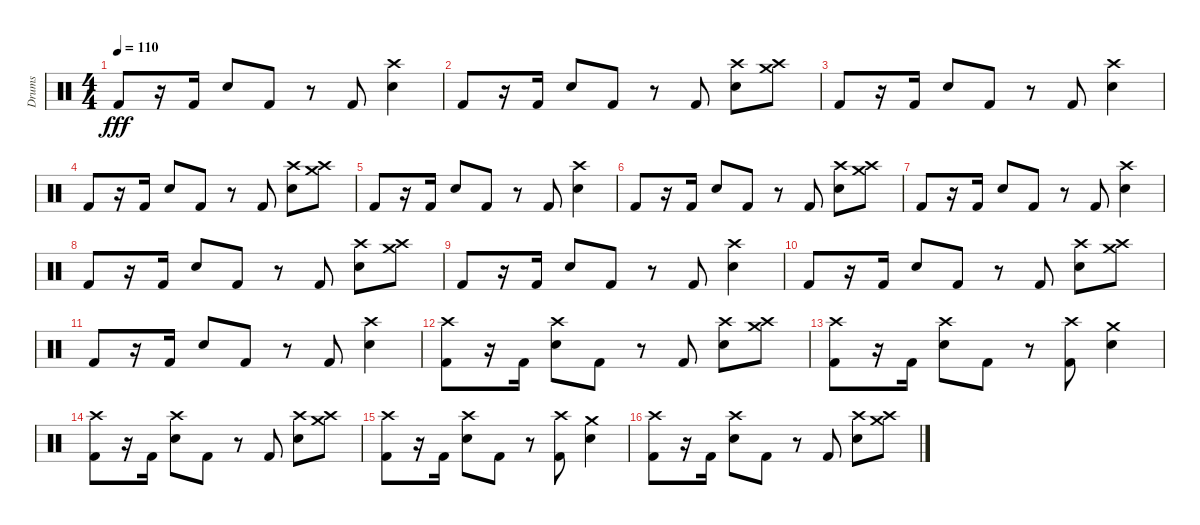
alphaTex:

\track ("Drums" "Drums") {instrument percussion}
\staff {score}
\articulation defaults
\ts (4 4)
\tempo 110
\clef neutral
\ks c "Kick (hit) 2".8{dy fff}
r.16 "Kick (hit) 2".16 "Electric Snare (hit)".8 "Kick (hit) 2".8 r.8 "Kick (hit) 2".8 ("Crash high (hit)" "Electric Snare (hit)").4 |
"Kick (hit) 2".8 r.16 "Kick (hit) 2".16 "Electric Snare (hit)".8 "Kick (hit) 2".8 r.8 "Kick (hit) 2".8 ("Crash high (hit)" "Electric Snare (hit)").8 ("Crash high (hit)" "Crash medium (hit)").8 |
"Kick (hit) 2".8 r.16 "Kick (hit) 2".16 "Electric Snare (hit)".8 "Kick (hit) 2".8 r.8 "Kick (hit) 2".8 ("Crash high (hit)" "Electric Snare (hit)").4 |
"Kick (hit) 2".8 r.16 "Kick (hit) 2".16 "Electric Snare (hit)".8 "Kick (hit) 2".8 r.8 "Kick (hit) 2".8 ("Crash high (hit)" "Electric Snare (hit)").8 ("Crash high (hit)" "Crash medium (hit)").8 |
"Kick (hit) 2".8 r.16 "Kick (hit) 2".16 "Electric Snare (hit)".8 "Kick (hit) 2".8 r.8 "Kick (hit) 2".8 ("Crash high (hit)" "Electric Snare (hit)").4 |
"Kick (hit) 2".8 r.16 "Kick (hit) 2".16 "Electric Snare (hit)".8 "Kick (hit) 2".8 r.8 "Kick (hit) 2".8 ("Crash high (hit)" "Electric Snare (hit)").8 ("Crash high (hit)" "Crash medium (hit)").8 |
"Kick (hit) 2".8 r.16 "Kick (hit) 2".16 "Electric Snare (hit)".8 "Kick (hit) 2".8 r.8 "Kick (hit) 2".8 ("Crash high (hit)" "Electric Snare (hit)").4 |
"Kick (hit) 2".8 r.16 "Kick (hit) 2".16 "Electric Snare (hit)".8 "Kick (hit) 2".8 r.8 "Kick (hit) 2".8 ("Crash high (hit)" "Electric Snare (hit)").8 ("Crash high (hit)" "Crash medium (hit)").8 |
"Kick (hit) 2".8 r.16 "Kick (hit) 2".16 "Electric Snare (hit)".8 "Kick (hit) 2".8 r.8 "Kick (hit) 2".8 ("Crash high (hit)" "Electric Snare (hit)").4 |
"Kick (hit) 2".8 r.16 "Kick (hit) 2".16 "Electric Snare (hit)".8 "Kick (hit) 2".8 r.8 "Kick (hit) 2".8 ("Crash high (hit)" "Electric Snare (hit)").8 ("Crash high (hit)" "Crash medium (hit)").8 |
"Kick (hit) 2".8 r.16 "Kick (hit) 2".16 "Electric Snare (hit)".8 "Kick (hit) 2".8 r.8 "Kick (hit) 2".8 ("Crash high (hit)" "Electric Snare (hit)").4 |
("Crash high (hit)" "Kick (hit) 2").8 r.16 "Kick (hit) 2".16 ("Crash high (hit)" "Electric Snare (hit)").8 "Kick (hit) 2".8 r.8 "Kick (hit) 2".8 ("Crash high (hit)" "Electric Snare (hit)").8 ("Crash high (hit)" "Crash medium (hit)").8 |
("Crash high (hit)" "Kick (hit) 2").8 r.16 "Kick (hit) 2".16 ("Crash high (hit)" "Electric Snare (hit)").8 "Kick (hit) 2".8 r.8 ("Crash high (hit)" "Kick (hit) 2").8 ("Crash medium (hit)" "Electric Snare (hit)").4 |
("Crash high (hit)" "Kick (hit) 2").8 r.16 "Kick (hit) 2".16 ("Crash high (hit)" "Electric Snare (hit)").8 "Kick (hit) 2".8 r.8 "Kick (hit) 2".8 ("Crash high (hit)" "Electric Snare (hit)").8 ("Crash high (hit)" "Crash medium (hit)").8 |
("Crash high (hit)" "Kick (hit) 2").8 r.16 "Kick (hit) 2".16 ("Crash high (hit)" "Electric Snare (hit)").8 "Kick (hit) 2".8 r.8 ("Crash high (hit)" "Kick (hit) 2").8 ("Crash medium (hit)" "Electric Snare (hit)").4 |
("Crash high (hit)" "Kick (hit) 2").8 r.16 "Kick (hit) 2".16 ("Crash high (hit)" "Electric Snare (hit)").8 "Kick (hit) 2".8 r.8 "Kick (hit) 2".8 ("Crash high (hit)" "Electric Snare (hit)").8 ("Crash high (hit)" "Crash medium (hit)").8
